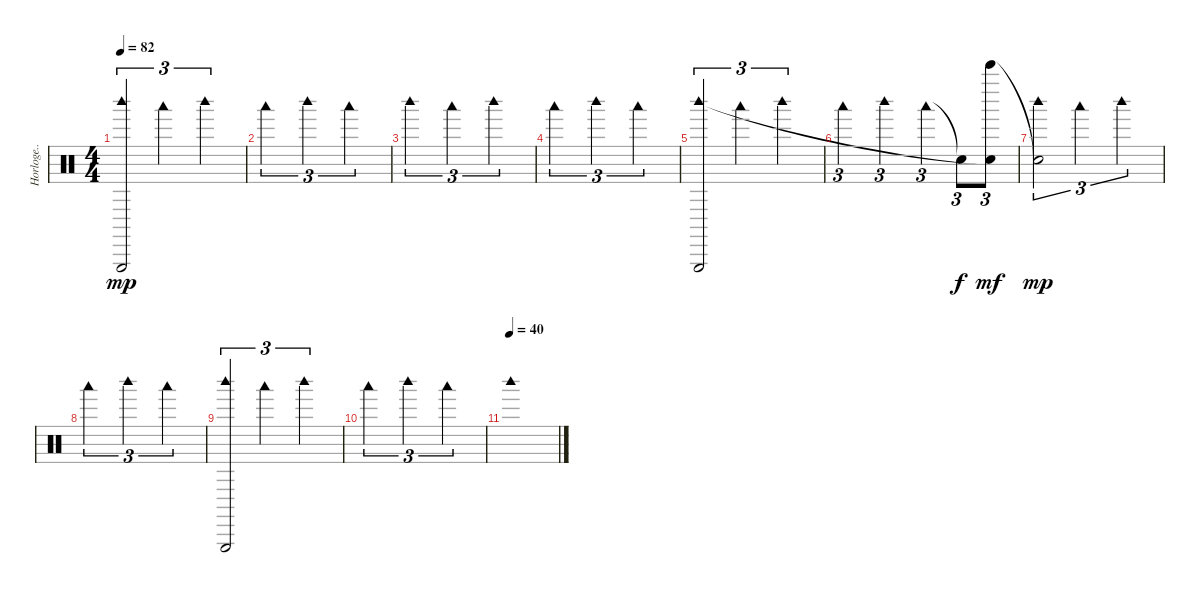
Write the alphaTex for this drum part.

\track ("Horloge.." "Horloge..") {instrument percussion}
\staff {score}
\articulation defaults
\ts (4 4)
\tempo 82
\clef neutral
\ks c
("Triangle (hit)" "Woodblock high (hit)").2{tu (3 2) dy mp} "Woodblock low (hit)".2{tu (3 2)} "Woodblock high (hit)".2{tu (3 2)} |
"Woodblock low (hit)".2{tu (3 2)} "Woodblock high (hit)".2{tu (3 2)} "Woodblock low (hit)".2{tu (3 2)} |
"Woodblock high (hit)".2{tu (3 2)} "Woodblock low (hit)".2{tu (3 2)} "Woodblock high (hit)".2{tu (3 2)} |
"Woodblock low (hit)".2{tu (3 2)} "Woodblock high (hit)".2{tu (3 2)} "Woodblock low (hit)".2{tu (3 2)} |
("Triangle (hit)" "Woodblock high (hit)").2{tu (3 2)} "Woodblock low (hit)".2{tu (3 2)} "Woodblock high (hit)".2{tu (3 2)} |
"Woodblock low (hit)".2{tu (3 2)} "Woodblock high (hit)".2{tu (3 2)} "Woodblock low (hit)".4{tu (3 2)} "Snare (hit)"{t}.8{tu (3 2) dy f} ("Bell Tree (hit)" "Snare (hit)"{t}).8{tu (3 2) dy mf} |
("Snare (hit)"{t} "Woodblock high (hit)").2{tu (3 2) dy mp} "Woodblock low (hit)".2{tu (3 2)} "Woodblock high (hit)".2{tu (3 2)} |
"Woodblock low (hit)".2{tu (3 2)} "Woodblock high (hit)".2{tu (3 2)} "Woodblock low (hit)".2{tu (3 2)} |
("Triangle (hit)" "Woodblock high (hit)").2{tu (3 2)} "Woodblock low (hit)".2{tu (3 2)} "Woodblock high (hit)".2{tu (3 2)} |
"Woodblock low (hit)".2{tu (3 2)} "Woodblock high (hit)".2{tu (3 2)} "Woodblock low (hit)".2{tu (3 2)} |
\tempo (40)
"Woodblock high (hit)".1
